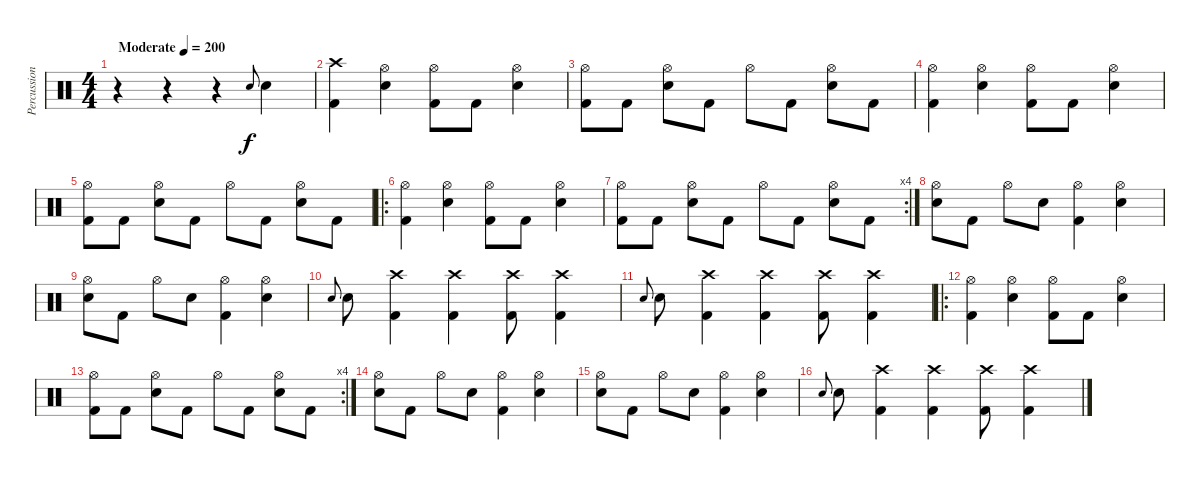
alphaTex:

\track ("Percussion" "Percussion") {instrument percussion}
\staff {score}
\articulation defaults
\ts (4 4)
\tempo (200 "Moderate")
\clef neutral
\ks c
r.4{dy f} r.4 r.4 "Electric Snare (hit)".8{gr onbeat} "Electric Snare (hit)".4 |
("Crash high (hit)" "Kick (hit) 2").4 ("Hi-Hat (open)" "Electric Snare (hit)").4 ("Hi-Hat (open)" "Kick (hit) 2").8 "Kick (hit) 2".8 ("Hi-Hat (open)" "Electric Snare (hit)").4 |
("Hi-Hat (open)" "Kick (hit) 2").8 "Kick (hit) 2".8 ("Hi-Hat (open)" "Electric Snare (hit)").8 "Kick (hit) 2".8 "Hi-Hat (open)".8 "Kick (hit) 2".8 ("Hi-Hat (open)" "Electric Snare (hit)").8 "Kick (hit) 2".8 |
("Hi-Hat (open)" "Kick (hit) 2").4 ("Hi-Hat (open)" "Electric Snare (hit)").4 ("Hi-Hat (open)" "Kick (hit) 2").8 "Kick (hit) 2".8 ("Hi-Hat (open)" "Electric Snare (hit)").4 |
("Hi-Hat (open)" "Kick (hit) 2").8 "Kick (hit) 2".8 ("Hi-Hat (open)" "Electric Snare (hit)").8 "Kick (hit) 2".8 "Hi-Hat (open)".8 "Kick (hit) 2".8 ("Hi-Hat (open)" "Electric Snare (hit)").8 "Kick (hit) 2".8 |
\ro
("Hi-Hat (open)" "Kick (hit) 2").4 ("Hi-Hat (open)" "Electric Snare (hit)").4 ("Hi-Hat (open)" "Kick (hit) 2").8 "Kick (hit) 2".8 ("Hi-Hat (open)" "Electric Snare (hit)").4 |
\rc 4
("Hi-Hat (open)" "Kick (hit) 2").8 "Kick (hit) 2".8 ("Hi-Hat (open)" "Electric Snare (hit)").8 "Kick (hit) 2".8 "Hi-Hat (open)".8 "Kick (hit) 2".8 ("Hi-Hat (open)" "Electric Snare (hit)").8 "Kick (hit) 2".8 |
("Hi-Hat (open)" "Electric Snare (hit)").8 "Kick (hit) 2".8 "Hi-Hat (open)".8 "Electric Snare (hit)".8 ("Hi-Hat (open)" "Kick (hit) 2").4 ("Hi-Hat (open)" "Electric Snare (hit)").4 |
("Hi-Hat (open)" "Electric Snare (hit)").8 "Kick (hit) 2".8 "Hi-Hat (open)".8 "Electric Snare (hit)".8 ("Hi-Hat (open)" "Kick (hit) 2").4 ("Hi-Hat (open)" "Electric Snare (hit)").4 |
"Electric Snare (hit)".8{gr onbeat} "Electric Snare (hit)".8 ("Crash high (hit)" "Kick (hit) 2").4 ("Crash high (hit)" "Kick (hit) 2").4 ("Crash high (hit)" "Kick (hit) 2").8 ("Crash high (hit)" "Kick (hit) 2").4 |
"Electric Snare (hit)".8{gr onbeat} "Electric Snare (hit)".8 ("Crash high (hit)" "Kick (hit) 2").4 ("Crash high (hit)" "Kick (hit) 2").4 ("Crash high (hit)" "Kick (hit) 2").8 ("Crash high (hit)" "Kick (hit) 2").4 |
\ro
("Hi-Hat (open)" "Kick (hit) 2").4 ("Hi-Hat (open)" "Electric Snare (hit)").4 ("Hi-Hat (open)" "Kick (hit) 2").8 "Kick (hit) 2".8 ("Hi-Hat (open)" "Electric Snare (hit)").4 |
\rc 4
("Hi-Hat (open)" "Kick (hit) 2").8 "Kick (hit) 2".8 ("Hi-Hat (open)" "Electric Snare (hit)").8 "Kick (hit) 2".8 "Hi-Hat (open)".8 "Kick (hit) 2".8 ("Hi-Hat (open)" "Electric Snare (hit)").8 "Kick (hit) 2".8 |
("Hi-Hat (open)" "Electric Snare (hit)").8 "Kick (hit) 2".8 "Hi-Hat (open)".8 "Electric Snare (hit)".8 ("Hi-Hat (open)" "Kick (hit) 2").4 ("Hi-Hat (open)" "Electric Snare (hit)").4 |
("Hi-Hat (open)" "Electric Snare (hit)").8 "Kick (hit) 2".8 "Hi-Hat (open)".8 "Electric Snare (hit)".8 ("Hi-Hat (open)" "Kick (hit) 2").4 ("Hi-Hat (open)" "Electric Snare (hit)").4 |
"Electric Snare (hit)".8{gr onbeat} "Electric Snare (hit)".8 ("Crash high (hit)" "Kick (hit) 2").4 ("Crash high (hit)" "Kick (hit) 2").4 ("Crash high (hit)" "Kick (hit) 2").8 ("Crash high (hit)" "Kick (hit) 2").4
